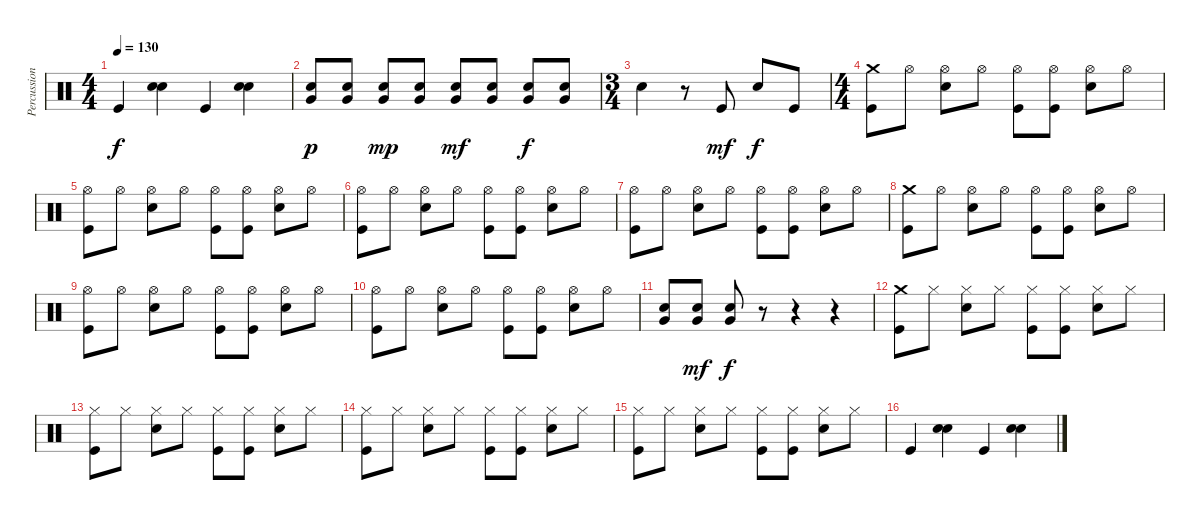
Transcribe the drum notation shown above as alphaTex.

\track ("Percussion" "Percussion") {instrument percussion}
\staff {score}
\articulation defaults
\ts (4 4)
\tempo 130
\clef neutral
\ks c "Kick (hit)".4{dy f}
("Snare (hit) 2" "Hand Clap (hit)").4 "Kick (hit)".4 ("Snare (hit) 2" "Hand Clap (hit)").4 |
("Snare (hit) 2" "Very Low Tom (hit)").8{dy p} ("Snare (hit) 2" "Very Low Tom (hit)").8 ("Snare (hit) 2" "Very Low Tom (hit)").8{dy mp} ("Snare (hit) 2" "Very Low Tom (hit)").8 ("Snare (hit) 2" "Very Low Tom (hit)").8{dy mf} ("Snare (hit) 2" "Very Low Tom (hit)").8 ("Snare (hit) 2" "Very Low Tom (hit)").8{dy f} ("Snare (hit) 2" "Very Low Tom (hit)").8 |
\ts (3 4)
"Snare (hit) 2".4 r.8 "Kick (hit)".8{dy mf} "Snare (hit) 2".8{dy f} "Kick (hit)".8 |
\ts (4 4)
("Crash medium (hit)" "Kick (hit)").8 "Hi-Hat (open)".8 ("Hi-Hat (open)" "Snare (hit) 2").8 "Hi-Hat (open)".8 ("Hi-Hat (open)" "Kick (hit)").8 ("Hi-Hat (open)" "Kick (hit)").8 ("Hi-Hat (open)" "Snare (hit) 2").8 "Hi-Hat (open)".8 |
("Hi-Hat (open)" "Kick (hit)").8 "Hi-Hat (open)".8 ("Hi-Hat (open)" "Snare (hit) 2").8 "Hi-Hat (open)".8 ("Hi-Hat (open)" "Kick (hit)").8 ("Hi-Hat (open)" "Kick (hit)").8 ("Hi-Hat (open)" "Snare (hit) 2").8 "Hi-Hat (open)".8 |
("Hi-Hat (open)" "Kick (hit)").8 "Hi-Hat (open)".8 ("Hi-Hat (open)" "Snare (hit) 2").8 "Hi-Hat (open)".8 ("Hi-Hat (open)" "Kick (hit)").8 ("Hi-Hat (open)" "Kick (hit)").8 ("Hi-Hat (open)" "Snare (hit) 2").8 "Hi-Hat (open)".8 |
("Hi-Hat (open)" "Kick (hit)").8 "Hi-Hat (open)".8 ("Hi-Hat (open)" "Snare (hit) 2").8 "Hi-Hat (open)".8 ("Hi-Hat (open)" "Kick (hit)").8 ("Hi-Hat (open)" "Kick (hit)").8 ("Hi-Hat (open)" "Snare (hit) 2").8 "Hi-Hat (open)".8 |
("Crash medium (hit)" "Kick (hit)").8 "Hi-Hat (open)".8 ("Hi-Hat (open)" "Snare (hit) 2").8 "Hi-Hat (open)".8 ("Hi-Hat (open)" "Kick (hit)").8 ("Hi-Hat (open)" "Kick (hit)").8 ("Hi-Hat (open)" "Snare (hit) 2").8 "Hi-Hat (open)".8 |
("Hi-Hat (open)" "Kick (hit)").8 "Hi-Hat (open)".8 ("Hi-Hat (open)" "Snare (hit) 2").8 "Hi-Hat (open)".8 ("Hi-Hat (open)" "Kick (hit)").8 ("Hi-Hat (open)" "Kick (hit)").8 ("Hi-Hat (open)" "Snare (hit) 2").8 "Hi-Hat (open)".8 |
("Hi-Hat (open)" "Kick (hit)").8 "Hi-Hat (open)".8 ("Hi-Hat (open)" "Snare (hit) 2").8 "Hi-Hat (open)".8 ("Hi-Hat (open)" "Kick (hit)").8 ("Hi-Hat (open)" "Kick (hit)").8 ("Hi-Hat (open)" "Snare (hit) 2").8 "Hi-Hat (open)".8 |
("Very Low Tom (hit)" "Snare (hit) 2").8 ("Very Low Tom (hit)" "Snare (hit) 2").8{dy mf} ("Very Low Tom (hit)" "Snare (hit) 2").8{dy f} r.8 r.4 r.4 |
("Crash medium (hit)" "Kick (hit)").8 "Hi-Hat (closed)".8 ("Hi-Hat (closed)" "Snare (hit) 2").8 "Hi-Hat (closed)".8 ("Hi-Hat (closed)" "Kick (hit)").8 ("Hi-Hat (closed)" "Kick (hit)").8 ("Hi-Hat (closed)" "Snare (hit) 2").8 "Hi-Hat (closed)".8 |
("Hi-Hat (closed)" "Kick (hit)").8 "Hi-Hat (closed)".8 ("Hi-Hat (closed)" "Snare (hit) 2").8 "Hi-Hat (closed)".8 ("Hi-Hat (closed)" "Kick (hit)").8 ("Hi-Hat (closed)" "Kick (hit)").8 ("Hi-Hat (closed)" "Snare (hit) 2").8 "Hi-Hat (closed)".8 |
("Hi-Hat (closed)" "Kick (hit)").8 "Hi-Hat (closed)".8 ("Hi-Hat (closed)" "Snare (hit) 2").8 "Hi-Hat (closed)".8 ("Hi-Hat (closed)" "Kick (hit)").8 ("Hi-Hat (closed)" "Kick (hit)").8 ("Hi-Hat (closed)" "Snare (hit) 2").8 "Hi-Hat (closed)".8 |
("Hi-Hat (closed)" "Kick (hit)").8 "Hi-Hat (closed)".8 ("Hi-Hat (closed)" "Snare (hit) 2").8 "Hi-Hat (closed)".8 ("Hi-Hat (closed)" "Kick (hit)").8 ("Hi-Hat (closed)" "Kick (hit)").8 ("Hi-Hat (closed)" "Snare (hit) 2").8 "Hi-Hat (closed)".8 |
"Kick (hit)".4 ("Snare (hit) 2" "Hand Clap (hit)").4 "Kick (hit)".4 ("Snare (hit) 2" "Hand Clap (hit)").4
